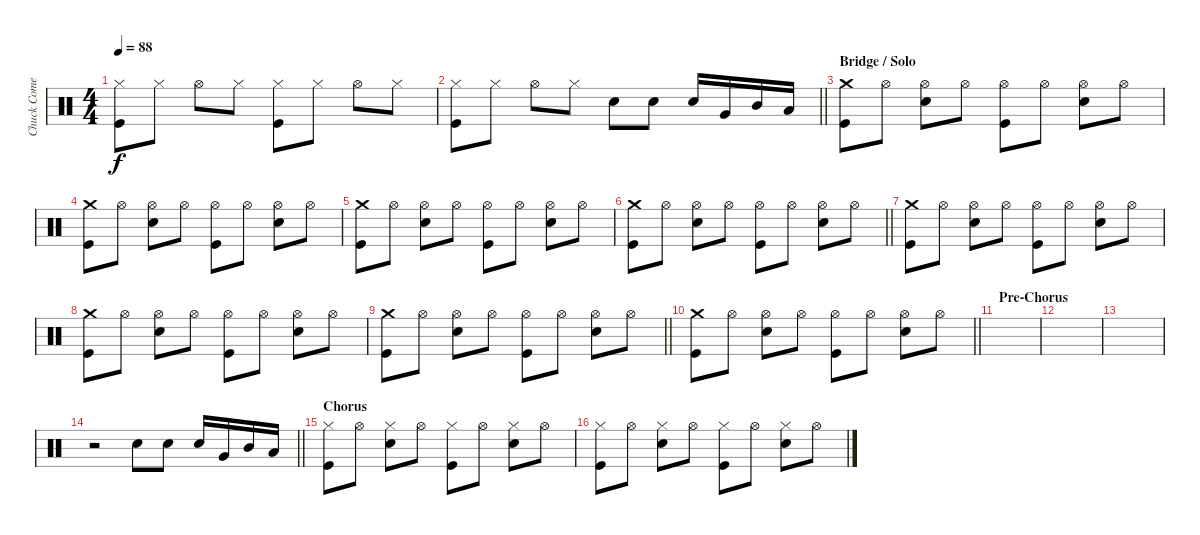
\track ("Chuck Comeau" "Chuck Come") {instrument percussion}
\staff {score}
\articulation defaults
\ts (4 4)
\tempo 88
\clef neutral
\ks c
("Hi-Hat (closed)" "Kick (hit)").8{dy f} "Hi-Hat (closed)".8 "Hi-Hat (open)".8 "Hi-Hat (closed)".8 ("Hi-Hat (closed)" "Kick (hit)").8 "Hi-Hat (closed)".8 "Hi-Hat (open)".8 "Hi-Hat (closed)".8 |
\barLineRight lightlight
("Hi-Hat (closed)" "Kick (hit)").8 "Hi-Hat (closed)".8 "Hi-Hat (open)".8 "Hi-Hat (closed)".8 "Snare (hit) 2".8 "Snare (hit) 2".8 "Snare (hit) 2".16 "Very Low Tom (hit)".16 "Mid Tom (hit)".16 "Low Tom (hit)".16 |
\section ("" "Bridge / Solo")
("Kick (hit)" "Crash medium (hit)").8 "Hi-Hat (open)".8 ("Hi-Hat (open)" "Snare (hit) 2").8 "Hi-Hat (open)".8 ("Kick (hit)" "Hi-Hat (open)").8 "Hi-Hat (open)".8 ("Hi-Hat (open)" "Snare (hit) 2").8 "Hi-Hat (open)".8 |
("Kick (hit)" "Crash medium (hit)").8 "Hi-Hat (open)".8 ("Hi-Hat (open)" "Snare (hit) 2").8 "Hi-Hat (open)".8 ("Kick (hit)" "Hi-Hat (open)").8 "Hi-Hat (open)".8 ("Hi-Hat (open)" "Snare (hit) 2").8 "Hi-Hat (open)".8 |
("Kick (hit)" "Crash medium (hit)").8 "Hi-Hat (open)".8 ("Hi-Hat (open)" "Snare (hit) 2").8 "Hi-Hat (open)".8 ("Kick (hit)" "Hi-Hat (open)").8 "Hi-Hat (open)".8 ("Hi-Hat (open)" "Snare (hit) 2").8 "Hi-Hat (open)".8 |
\barLineRight lightlight
("Kick (hit)" "Crash medium (hit)").8 "Hi-Hat (open)".8 ("Hi-Hat (open)" "Snare (hit) 2").8 "Hi-Hat (open)".8 ("Kick (hit)" "Hi-Hat (open)").8 "Hi-Hat (open)".8 ("Hi-Hat (open)" "Snare (hit) 2").8 "Hi-Hat (open)".8 |
("Kick (hit)" "Crash medium (hit)").8 "Hi-Hat (open)".8 ("Hi-Hat (open)" "Snare (hit) 2").8 "Hi-Hat (open)".8 ("Kick (hit)" "Hi-Hat (open)").8 "Hi-Hat (open)".8 ("Hi-Hat (open)" "Snare (hit) 2").8 "Hi-Hat (open)".8 |
("Kick (hit)" "Crash medium (hit)").8 "Hi-Hat (open)".8 ("Hi-Hat (open)" "Snare (hit) 2").8 "Hi-Hat (open)".8 ("Kick (hit)" "Hi-Hat (open)").8 "Hi-Hat (open)".8 ("Hi-Hat (open)" "Snare (hit) 2").8 "Hi-Hat (open)".8 |
\barLineRight lightlight
("Kick (hit)" "Crash medium (hit)").8 "Hi-Hat (open)".8 ("Hi-Hat (open)" "Snare (hit) 2").8 "Hi-Hat (open)".8 ("Kick (hit)" "Hi-Hat (open)").8 "Hi-Hat (open)".8 ("Hi-Hat (open)" "Snare (hit) 2").8 "Hi-Hat (open)".8 |
\barLineRight lightlight
("Kick (hit)" "Crash medium (hit)").8 "Hi-Hat (open)".8 ("Hi-Hat (open)" "Snare (hit) 2").8 "Hi-Hat (open)".8 ("Kick (hit)" "Hi-Hat (open)").8 "Hi-Hat (open)".8 ("Hi-Hat (open)" "Snare (hit) 2").8 "Hi-Hat (open)".8 |
\section ("" "Pre-Chorus")
|
|
|
\barLineRight lightlight
r.2 "Snare (hit) 2".8 "Snare (hit) 2".8 "Snare (hit) 2".16 "Very Low Tom (hit)".16 "Mid Tom (hit)".16 "Low Tom (hit)".16 |
\section ("" "Chorus")
("Hi-Hat (closed)" "Kick (hit)").8 "Hi-Hat (open)".8 ("Hi-Hat (closed)" "Snare (hit) 2").8 "Hi-Hat (open)".8 ("Hi-Hat (closed)" "Kick (hit)").8 "Hi-Hat (open)".8 ("Hi-Hat (closed)" "Snare (hit) 2").8 "Hi-Hat (open)".8 |
("Hi-Hat (closed)" "Kick (hit)").8 "Hi-Hat (open)".8 ("Hi-Hat (closed)" "Snare (hit) 2").8 "Hi-Hat (open)".8 ("Hi-Hat (closed)" "Kick (hit)").8 "Hi-Hat (open)".8 ("Hi-Hat (closed)" "Snare (hit) 2").8 "Hi-Hat (open)".8
